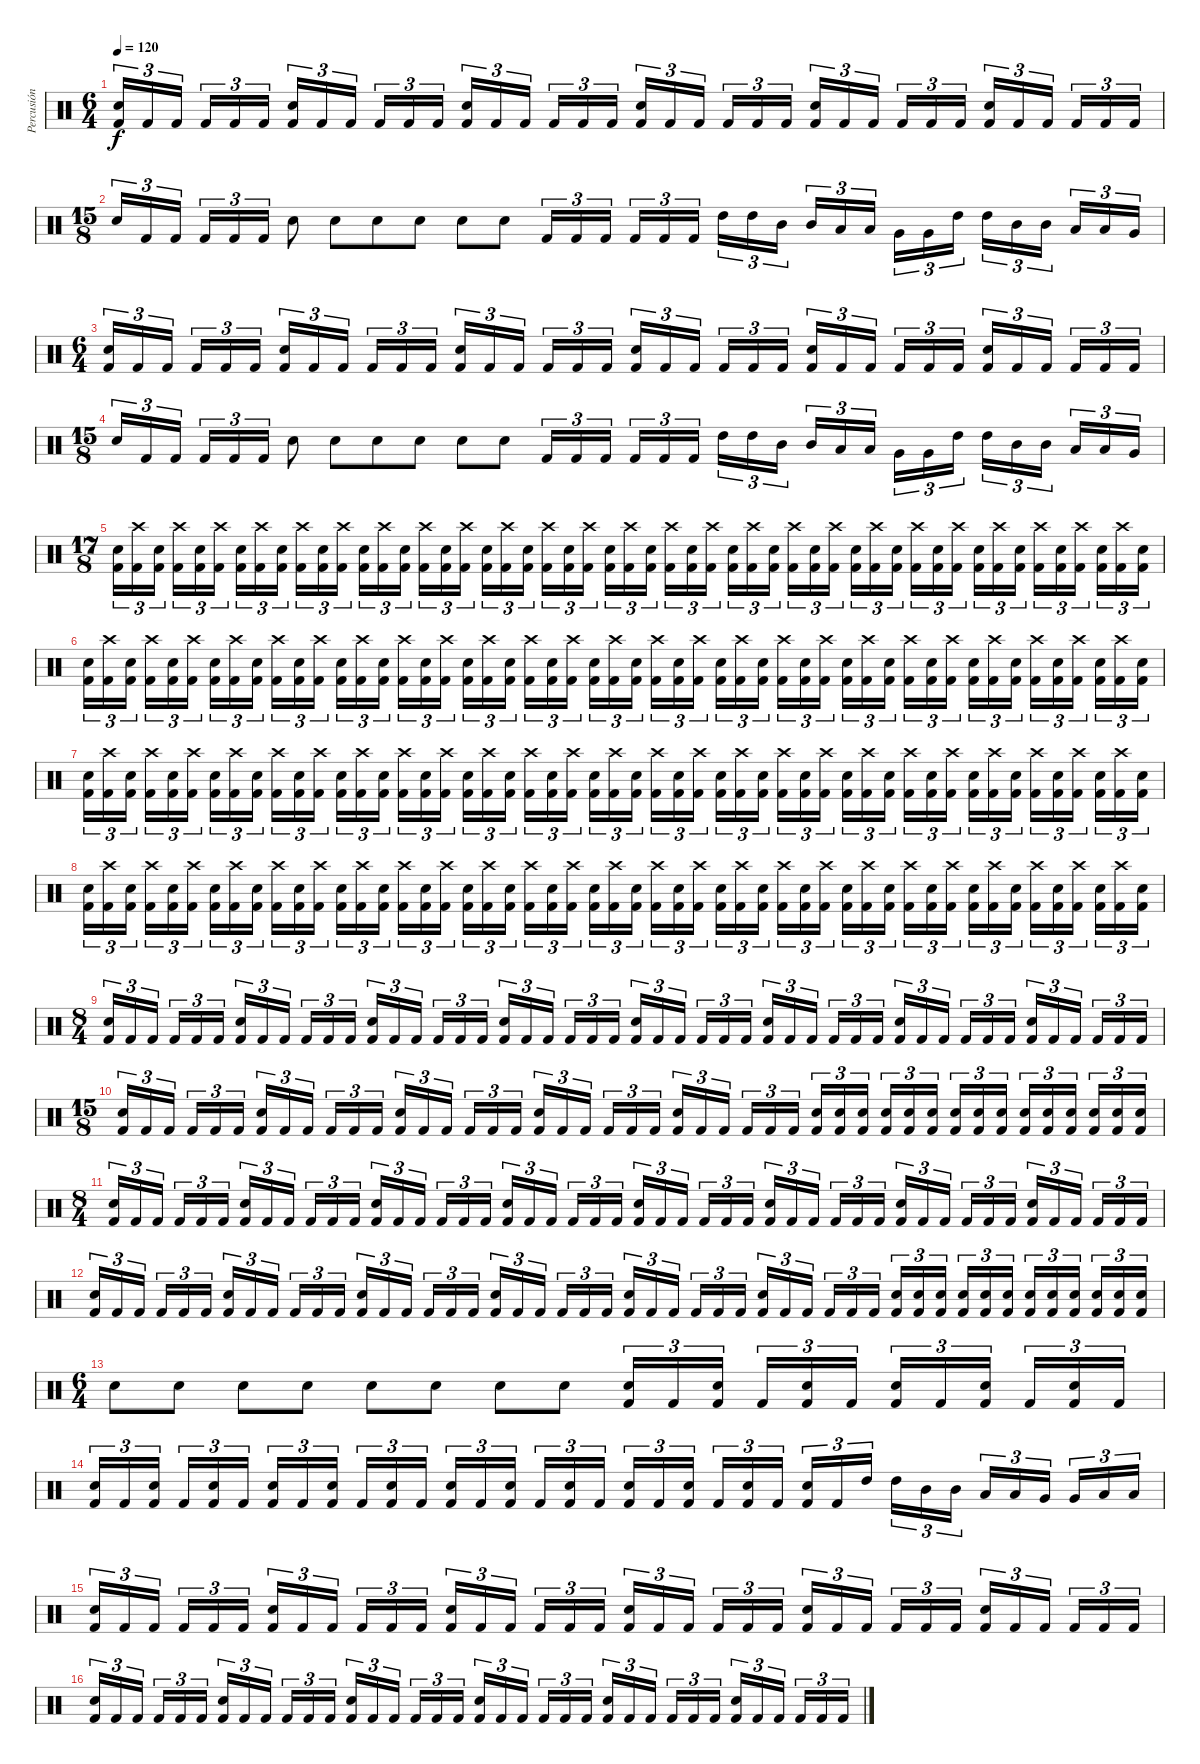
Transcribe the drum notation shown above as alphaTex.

\track ("Percusión" "Percusión") {instrument percussion}
\staff {score}
\articulation defaults
\ts (6 4)
\tempo 120
\clef neutral
\ks c
("Electric Snare (hit)" "Kick (hit) 2").16{tu (3 2) dy f} "Kick (hit) 2".16{tu (3 2)} "Kick (hit) 2".16{tu (3 2)} "Kick (hit) 2".16{tu (3 2)} "Kick (hit) 2".16{tu (3 2)} "Kick (hit) 2".16{tu (3 2)} ("Electric Snare (hit)" "Kick (hit) 2").16{tu (3 2)} "Kick (hit) 2".16{tu (3 2)} "Kick (hit) 2".16{tu (3 2)} "Kick (hit) 2".16{tu (3 2)} "Kick (hit) 2".16{tu (3 2)} "Kick (hit) 2".16{tu (3 2)} ("Electric Snare (hit)" "Kick (hit) 2").16{tu (3 2)} "Kick (hit) 2".16{tu (3 2)} "Kick (hit) 2".16{tu (3 2)} "Kick (hit) 2".16{tu (3 2)} "Kick (hit) 2".16{tu (3 2)} "Kick (hit) 2".16{tu (3 2)} ("Electric Snare (hit)" "Kick (hit) 2").16{tu (3 2)} "Kick (hit) 2".16{tu (3 2)} "Kick (hit) 2".16{tu (3 2)} "Kick (hit) 2".16{tu (3 2)} "Kick (hit) 2".16{tu (3 2)} "Kick (hit) 2".16{tu (3 2)} ("Electric Snare (hit)" "Kick (hit) 2").16{tu (3 2)} "Kick (hit) 2".16{tu (3 2)} "Kick (hit) 2".16{tu (3 2)} "Kick (hit) 2".16{tu (3 2)} "Kick (hit) 2".16{tu (3 2)} "Kick (hit) 2".16{tu (3 2)} ("Electric Snare (hit)" "Kick (hit) 2").16{tu (3 2)} "Kick (hit) 2".16{tu (3 2)} "Kick (hit) 2".16{tu (3 2)} "Kick (hit) 2".16{tu (3 2)} "Kick (hit) 2".16{tu (3 2)} "Kick (hit) 2".16{tu (3 2)} |
\ts (15 8)
"Electric Snare (hit)".16{tu (3 2)} "Kick (hit) 2".16{tu (3 2)} "Kick (hit) 2".16{tu (3 2)} "Kick (hit) 2".16{tu (3 2)} "Kick (hit) 2".16{tu (3 2)} "Kick (hit) 2".16{tu (3 2)} "Electric Snare (hit)".8 "Electric Snare (hit)".8 "Electric Snare (hit)".8 "Electric Snare (hit)".8 "Electric Snare (hit)".8 "Electric Snare (hit)".8 "Kick (hit) 2".16{tu (3 2)} "Kick (hit) 2".16{tu (3 2)} "Kick (hit) 2".16{tu (3 2)} "Kick (hit) 2".16{tu (3 2)} "Kick (hit) 2".16{tu (3 2)} "Kick (hit) 2".16{tu (3 2)} "High Tom (hit)".16{tu (3 2)} "High Tom (hit)".16{tu (3 2)} "Mid Tom (hit)".16{tu (3 2)} "Mid Tom (hit)".16{tu (3 2)} "Low Tom (hit)".16{tu (3 2)} "Low Tom (hit)".16{tu (3 2)} "Very Low Tom (hit)".16{tu (3 2)} "Very Low Tom (hit)".16{tu (3 2)} "High Tom (hit)".16{tu (3 2)} "High Tom (hit)".16{tu (3 2)} "Mid Tom (hit)".16{tu (3 2)} "Mid Tom (hit)".16{tu (3 2)} "Low Tom (hit)".16{tu (3 2)} "Low Tom (hit)".16{tu (3 2)} "Very Low Tom (hit)".16{tu (3 2)} |
\ts (6 4)
("Electric Snare (hit)" "Kick (hit) 2").16{tu (3 2)} "Kick (hit) 2".16{tu (3 2)} "Kick (hit) 2".16{tu (3 2)} "Kick (hit) 2".16{tu (3 2)} "Kick (hit) 2".16{tu (3 2)} "Kick (hit) 2".16{tu (3 2)} ("Electric Snare (hit)" "Kick (hit) 2").16{tu (3 2)} "Kick (hit) 2".16{tu (3 2)} "Kick (hit) 2".16{tu (3 2)} "Kick (hit) 2".16{tu (3 2)} "Kick (hit) 2".16{tu (3 2)} "Kick (hit) 2".16{tu (3 2)} ("Electric Snare (hit)" "Kick (hit) 2").16{tu (3 2)} "Kick (hit) 2".16{tu (3 2)} "Kick (hit) 2".16{tu (3 2)} "Kick (hit) 2".16{tu (3 2)} "Kick (hit) 2".16{tu (3 2)} "Kick (hit) 2".16{tu (3 2)} ("Electric Snare (hit)" "Kick (hit) 2").16{tu (3 2)} "Kick (hit) 2".16{tu (3 2)} "Kick (hit) 2".16{tu (3 2)} "Kick (hit) 2".16{tu (3 2)} "Kick (hit) 2".16{tu (3 2)} "Kick (hit) 2".16{tu (3 2)} ("Electric Snare (hit)" "Kick (hit) 2").16{tu (3 2)} "Kick (hit) 2".16{tu (3 2)} "Kick (hit) 2".16{tu (3 2)} "Kick (hit) 2".16{tu (3 2)} "Kick (hit) 2".16{tu (3 2)} "Kick (hit) 2".16{tu (3 2)} ("Electric Snare (hit)" "Kick (hit) 2").16{tu (3 2)} "Kick (hit) 2".16{tu (3 2)} "Kick (hit) 2".16{tu (3 2)} "Kick (hit) 2".16{tu (3 2)} "Kick (hit) 2".16{tu (3 2)} "Kick (hit) 2".16{tu (3 2)} |
\ts (15 8)
"Electric Snare (hit)".16{tu (3 2)} "Kick (hit) 2".16{tu (3 2)} "Kick (hit) 2".16{tu (3 2)} "Kick (hit) 2".16{tu (3 2)} "Kick (hit) 2".16{tu (3 2)} "Kick (hit) 2".16{tu (3 2)} "Electric Snare (hit)".8 "Electric Snare (hit)".8 "Electric Snare (hit)".8 "Electric Snare (hit)".8 "Electric Snare (hit)".8 "Electric Snare (hit)".8 "Kick (hit) 2".16{tu (3 2)} "Kick (hit) 2".16{tu (3 2)} "Kick (hit) 2".16{tu (3 2)} "Kick (hit) 2".16{tu (3 2)} "Kick (hit) 2".16{tu (3 2)} "Kick (hit) 2".16{tu (3 2)} "High Tom (hit)".16{tu (3 2)} "High Tom (hit)".16{tu (3 2)} "Mid Tom (hit)".16{tu (3 2)} "Mid Tom (hit)".16{tu (3 2)} "Low Tom (hit)".16{tu (3 2)} "Low Tom (hit)".16{tu (3 2)} "Very Low Tom (hit)".16{tu (3 2)} "Very Low Tom (hit)".16{tu (3 2)} "High Tom (hit)".16{tu (3 2)} "High Tom (hit)".16{tu (3 2)} "Mid Tom (hit)".16{tu (3 2)} "Mid Tom (hit)".16{tu (3 2)} "Low Tom (hit)".16{tu (3 2)} "Low Tom (hit)".16{tu (3 2)} "Very Low Tom (hit)".16{tu (3 2)} |
\ts (17 8)
("Electric Snare (hit)" "Kick (hit) 2").16{tu (3 2)} ("Crash high (hit)" "Kick (hit) 2").16{tu (3 2)} ("Electric Snare (hit)" "Kick (hit) 2").16{tu (3 2)} ("Crash high (hit)" "Kick (hit) 2").16{tu (3 2)} ("Electric Snare (hit)" "Kick (hit) 2").16{tu (3 2)} ("Crash high (hit)" "Kick (hit) 2").16{tu (3 2)} ("Electric Snare (hit)" "Kick (hit) 2").16{tu (3 2)} ("Crash high (hit)" "Kick (hit) 2").16{tu (3 2)} ("Electric Snare (hit)" "Kick (hit) 2").16{tu (3 2)} ("Crash high (hit)" "Kick (hit) 2").16{tu (3 2)} ("Electric Snare (hit)" "Kick (hit) 2").16{tu (3 2)} ("Crash high (hit)" "Kick (hit) 2").16{tu (3 2)} ("Electric Snare (hit)" "Kick (hit) 2").16{tu (3 2)} ("Crash high (hit)" "Kick (hit) 2").16{tu (3 2)} ("Electric Snare (hit)" "Kick (hit) 2").16{tu (3 2)} ("Crash high (hit)" "Kick (hit) 2").16{tu (3 2)} ("Electric Snare (hit)" "Kick (hit) 2").16{tu (3 2)} ("Crash high (hit)" "Kick (hit) 2").16{tu (3 2)} ("Electric Snare (hit)" "Kick (hit) 2").16{tu (3 2)} ("Crash high (hit)" "Kick (hit) 2").16{tu (3 2)} ("Electric Snare (hit)" "Kick (hit) 2").16{tu (3 2)} ("Crash high (hit)" "Kick (hit) 2").16{tu (3 2)} ("Electric Snare (hit)" "Kick (hit) 2").16{tu (3 2)} ("Crash high (hit)" "Kick (hit) 2").16{tu (3 2)} ("Electric Snare (hit)" "Kick (hit) 2").16{tu (3 2)} ("Crash high (hit)" "Kick (hit) 2").16{tu (3 2)} ("Electric Snare (hit)" "Kick (hit) 2").16{tu (3 2)} ("Crash high (hit)" "Kick (hit) 2").16{tu (3 2)} ("Electric Snare (hit)" "Kick (hit) 2").16{tu (3 2)} ("Crash high (hit)" "Kick (hit) 2").16{tu (3 2)} ("Electric Snare (hit)" "Kick (hit) 2").16{tu (3 2)} ("Crash high (hit)" "Kick (hit) 2").16{tu (3 2)} ("Electric Snare (hit)" "Kick (hit) 2").16{tu (3 2)} ("Crash high (hit)" "Kick (hit) 2").16{tu (3 2)} ("Electric Snare (hit)" "Kick (hit) 2").16{tu (3 2)} ("Crash high (hit)" "Kick (hit) 2").16{tu (3 2)} ("Electric Snare (hit)" "Kick (hit) 2").16{tu (3 2)} ("Crash high (hit)" "Kick (hit) 2").16{tu (3 2)} ("Electric Snare (hit)" "Kick (hit) 2").16{tu (3 2)} ("Crash high (hit)" "Kick (hit) 2").16{tu (3 2)} ("Electric Snare (hit)" "Kick (hit) 2").16{tu (3 2)} ("Crash high (hit)" "Kick (hit) 2").16{tu (3 2)} ("Electric Snare (hit)" "Kick (hit) 2").16{tu (3 2)} ("Crash high (hit)" "Kick (hit) 2").16{tu (3 2)} ("Electric Snare (hit)" "Kick (hit) 2").16{tu (3 2)} ("Crash high (hit)" "Kick (hit) 2").16{tu (3 2)} ("Electric Snare (hit)" "Kick (hit) 2").16{tu (3 2)} ("Crash high (hit)" "Kick (hit) 2").16{tu (3 2)} ("Electric Snare (hit)" "Kick (hit) 2").16{tu (3 2)} ("Crash high (hit)" "Kick (hit) 2").16{tu (3 2)} ("Electric Snare (hit)" "Kick (hit) 2").16{tu (3 2)} |
("Electric Snare (hit)" "Kick (hit) 2").16{tu (3 2)} ("Crash high (hit)" "Kick (hit) 2").16{tu (3 2)} ("Electric Snare (hit)" "Kick (hit) 2").16{tu (3 2)} ("Crash high (hit)" "Kick (hit) 2").16{tu (3 2)} ("Electric Snare (hit)" "Kick (hit) 2").16{tu (3 2)} ("Crash high (hit)" "Kick (hit) 2").16{tu (3 2)} ("Electric Snare (hit)" "Kick (hit) 2").16{tu (3 2)} ("Crash high (hit)" "Kick (hit) 2").16{tu (3 2)} ("Electric Snare (hit)" "Kick (hit) 2").16{tu (3 2)} ("Crash high (hit)" "Kick (hit) 2").16{tu (3 2)} ("Electric Snare (hit)" "Kick (hit) 2").16{tu (3 2)} ("Crash high (hit)" "Kick (hit) 2").16{tu (3 2)} ("Electric Snare (hit)" "Kick (hit) 2").16{tu (3 2)} ("Crash high (hit)" "Kick (hit) 2").16{tu (3 2)} ("Electric Snare (hit)" "Kick (hit) 2").16{tu (3 2)} ("Crash high (hit)" "Kick (hit) 2").16{tu (3 2)} ("Electric Snare (hit)" "Kick (hit) 2").16{tu (3 2)} ("Crash high (hit)" "Kick (hit) 2").16{tu (3 2)} ("Electric Snare (hit)" "Kick (hit) 2").16{tu (3 2)} ("Crash high (hit)" "Kick (hit) 2").16{tu (3 2)} ("Electric Snare (hit)" "Kick (hit) 2").16{tu (3 2)} ("Crash high (hit)" "Kick (hit) 2").16{tu (3 2)} ("Electric Snare (hit)" "Kick (hit) 2").16{tu (3 2)} ("Crash high (hit)" "Kick (hit) 2").16{tu (3 2)} ("Electric Snare (hit)" "Kick (hit) 2").16{tu (3 2)} ("Crash high (hit)" "Kick (hit) 2").16{tu (3 2)} ("Electric Snare (hit)" "Kick (hit) 2").16{tu (3 2)} ("Crash high (hit)" "Kick (hit) 2").16{tu (3 2)} ("Electric Snare (hit)" "Kick (hit) 2").16{tu (3 2)} ("Crash high (hit)" "Kick (hit) 2").16{tu (3 2)} ("Electric Snare (hit)" "Kick (hit) 2").16{tu (3 2)} ("Crash high (hit)" "Kick (hit) 2").16{tu (3 2)} ("Electric Snare (hit)" "Kick (hit) 2").16{tu (3 2)} ("Crash high (hit)" "Kick (hit) 2").16{tu (3 2)} ("Electric Snare (hit)" "Kick (hit) 2").16{tu (3 2)} ("Crash high (hit)" "Kick (hit) 2").16{tu (3 2)} ("Electric Snare (hit)" "Kick (hit) 2").16{tu (3 2)} ("Crash high (hit)" "Kick (hit) 2").16{tu (3 2)} ("Electric Snare (hit)" "Kick (hit) 2").16{tu (3 2)} ("Crash high (hit)" "Kick (hit) 2").16{tu (3 2)} ("Electric Snare (hit)" "Kick (hit) 2").16{tu (3 2)} ("Crash high (hit)" "Kick (hit) 2").16{tu (3 2)} ("Electric Snare (hit)" "Kick (hit) 2").16{tu (3 2)} ("Crash high (hit)" "Kick (hit) 2").16{tu (3 2)} ("Electric Snare (hit)" "Kick (hit) 2").16{tu (3 2)} ("Crash high (hit)" "Kick (hit) 2").16{tu (3 2)} ("Electric Snare (hit)" "Kick (hit) 2").16{tu (3 2)} ("Crash high (hit)" "Kick (hit) 2").16{tu (3 2)} ("Electric Snare (hit)" "Kick (hit) 2").16{tu (3 2)} ("Crash high (hit)" "Kick (hit) 2").16{tu (3 2)} ("Electric Snare (hit)" "Kick (hit) 2").16{tu (3 2)} |
("Electric Snare (hit)" "Kick (hit) 2").16{tu (3 2)} ("Crash high (hit)" "Kick (hit) 2").16{tu (3 2)} ("Electric Snare (hit)" "Kick (hit) 2").16{tu (3 2)} ("Crash high (hit)" "Kick (hit) 2").16{tu (3 2)} ("Electric Snare (hit)" "Kick (hit) 2").16{tu (3 2)} ("Crash high (hit)" "Kick (hit) 2").16{tu (3 2)} ("Electric Snare (hit)" "Kick (hit) 2").16{tu (3 2)} ("Crash high (hit)" "Kick (hit) 2").16{tu (3 2)} ("Electric Snare (hit)" "Kick (hit) 2").16{tu (3 2)} ("Crash high (hit)" "Kick (hit) 2").16{tu (3 2)} ("Electric Snare (hit)" "Kick (hit) 2").16{tu (3 2)} ("Crash high (hit)" "Kick (hit) 2").16{tu (3 2)} ("Electric Snare (hit)" "Kick (hit) 2").16{tu (3 2)} ("Crash high (hit)" "Kick (hit) 2").16{tu (3 2)} ("Electric Snare (hit)" "Kick (hit) 2").16{tu (3 2)} ("Crash high (hit)" "Kick (hit) 2").16{tu (3 2)} ("Electric Snare (hit)" "Kick (hit) 2").16{tu (3 2)} ("Crash high (hit)" "Kick (hit) 2").16{tu (3 2)} ("Electric Snare (hit)" "Kick (hit) 2").16{tu (3 2)} ("Crash high (hit)" "Kick (hit) 2").16{tu (3 2)} ("Electric Snare (hit)" "Kick (hit) 2").16{tu (3 2)} ("Crash high (hit)" "Kick (hit) 2").16{tu (3 2)} ("Electric Snare (hit)" "Kick (hit) 2").16{tu (3 2)} ("Crash high (hit)" "Kick (hit) 2").16{tu (3 2)} ("Electric Snare (hit)" "Kick (hit) 2").16{tu (3 2)} ("Crash high (hit)" "Kick (hit) 2").16{tu (3 2)} ("Electric Snare (hit)" "Kick (hit) 2").16{tu (3 2)} ("Crash high (hit)" "Kick (hit) 2").16{tu (3 2)} ("Electric Snare (hit)" "Kick (hit) 2").16{tu (3 2)} ("Crash high (hit)" "Kick (hit) 2").16{tu (3 2)} ("Electric Snare (hit)" "Kick (hit) 2").16{tu (3 2)} ("Crash high (hit)" "Kick (hit) 2").16{tu (3 2)} ("Electric Snare (hit)" "Kick (hit) 2").16{tu (3 2)} ("Crash high (hit)" "Kick (hit) 2").16{tu (3 2)} ("Electric Snare (hit)" "Kick (hit) 2").16{tu (3 2)} ("Crash high (hit)" "Kick (hit) 2").16{tu (3 2)} ("Electric Snare (hit)" "Kick (hit) 2").16{tu (3 2)} ("Crash high (hit)" "Kick (hit) 2").16{tu (3 2)} ("Electric Snare (hit)" "Kick (hit) 2").16{tu (3 2)} ("Crash high (hit)" "Kick (hit) 2").16{tu (3 2)} ("Electric Snare (hit)" "Kick (hit) 2").16{tu (3 2)} ("Crash high (hit)" "Kick (hit) 2").16{tu (3 2)} ("Electric Snare (hit)" "Kick (hit) 2").16{tu (3 2)} ("Crash high (hit)" "Kick (hit) 2").16{tu (3 2)} ("Electric Snare (hit)" "Kick (hit) 2").16{tu (3 2)} ("Crash high (hit)" "Kick (hit) 2").16{tu (3 2)} ("Electric Snare (hit)" "Kick (hit) 2").16{tu (3 2)} ("Crash high (hit)" "Kick (hit) 2").16{tu (3 2)} ("Electric Snare (hit)" "Kick (hit) 2").16{tu (3 2)} ("Crash high (hit)" "Kick (hit) 2").16{tu (3 2)} ("Electric Snare (hit)" "Kick (hit) 2").16{tu (3 2)} |
("Electric Snare (hit)" "Kick (hit) 2").16{tu (3 2)} ("Crash high (hit)" "Kick (hit) 2").16{tu (3 2)} ("Electric Snare (hit)" "Kick (hit) 2").16{tu (3 2)} ("Crash high (hit)" "Kick (hit) 2").16{tu (3 2)} ("Electric Snare (hit)" "Kick (hit) 2").16{tu (3 2)} ("Crash high (hit)" "Kick (hit) 2").16{tu (3 2)} ("Electric Snare (hit)" "Kick (hit) 2").16{tu (3 2)} ("Crash high (hit)" "Kick (hit) 2").16{tu (3 2)} ("Electric Snare (hit)" "Kick (hit) 2").16{tu (3 2)} ("Crash high (hit)" "Kick (hit) 2").16{tu (3 2)} ("Electric Snare (hit)" "Kick (hit) 2").16{tu (3 2)} ("Crash high (hit)" "Kick (hit) 2").16{tu (3 2)} ("Electric Snare (hit)" "Kick (hit) 2").16{tu (3 2)} ("Crash high (hit)" "Kick (hit) 2").16{tu (3 2)} ("Electric Snare (hit)" "Kick (hit) 2").16{tu (3 2)} ("Crash high (hit)" "Kick (hit) 2").16{tu (3 2)} ("Electric Snare (hit)" "Kick (hit) 2").16{tu (3 2)} ("Crash high (hit)" "Kick (hit) 2").16{tu (3 2)} ("Electric Snare (hit)" "Kick (hit) 2").16{tu (3 2)} ("Crash high (hit)" "Kick (hit) 2").16{tu (3 2)} ("Electric Snare (hit)" "Kick (hit) 2").16{tu (3 2)} ("Crash high (hit)" "Kick (hit) 2").16{tu (3 2)} ("Electric Snare (hit)" "Kick (hit) 2").16{tu (3 2)} ("Crash high (hit)" "Kick (hit) 2").16{tu (3 2)} ("Electric Snare (hit)" "Kick (hit) 2").16{tu (3 2)} ("Crash high (hit)" "Kick (hit) 2").16{tu (3 2)} ("Electric Snare (hit)" "Kick (hit) 2").16{tu (3 2)} ("Crash high (hit)" "Kick (hit) 2").16{tu (3 2)} ("Electric Snare (hit)" "Kick (hit) 2").16{tu (3 2)} ("Crash high (hit)" "Kick (hit) 2").16{tu (3 2)} ("Electric Snare (hit)" "Kick (hit) 2").16{tu (3 2)} ("Crash high (hit)" "Kick (hit) 2").16{tu (3 2)} ("Electric Snare (hit)" "Kick (hit) 2").16{tu (3 2)} ("Crash high (hit)" "Kick (hit) 2").16{tu (3 2)} ("Electric Snare (hit)" "Kick (hit) 2").16{tu (3 2)} ("Crash high (hit)" "Kick (hit) 2").16{tu (3 2)} ("Electric Snare (hit)" "Kick (hit) 2").16{tu (3 2)} ("Crash high (hit)" "Kick (hit) 2").16{tu (3 2)} ("Electric Snare (hit)" "Kick (hit) 2").16{tu (3 2)} ("Crash high (hit)" "Kick (hit) 2").16{tu (3 2)} ("Electric Snare (hit)" "Kick (hit) 2").16{tu (3 2)} ("Crash high (hit)" "Kick (hit) 2").16{tu (3 2)} ("Electric Snare (hit)" "Kick (hit) 2").16{tu (3 2)} ("Crash high (hit)" "Kick (hit) 2").16{tu (3 2)} ("Electric Snare (hit)" "Kick (hit) 2").16{tu (3 2)} ("Crash high (hit)" "Kick (hit) 2").16{tu (3 2)} ("Electric Snare (hit)" "Kick (hit) 2").16{tu (3 2)} ("Crash high (hit)" "Kick (hit) 2").16{tu (3 2)} ("Electric Snare (hit)" "Kick (hit) 2").16{tu (3 2)} ("Crash high (hit)" "Kick (hit) 2").16{tu (3 2)} ("Electric Snare (hit)" "Kick (hit) 2").16{tu (3 2)} |
\ts (8 4)
("Electric Snare (hit)" "Kick (hit) 2").16{tu (3 2)} "Kick (hit) 2".16{tu (3 2)} "Kick (hit) 2".16{tu (3 2)} "Kick (hit) 2".16{tu (3 2)} "Kick (hit) 2".16{tu (3 2)} "Kick (hit) 2".16{tu (3 2)} ("Electric Snare (hit)" "Kick (hit) 2").16{tu (3 2)} "Kick (hit) 2".16{tu (3 2)} "Kick (hit) 2".16{tu (3 2)} "Kick (hit) 2".16{tu (3 2)} "Kick (hit) 2".16{tu (3 2)} "Kick (hit) 2".16{tu (3 2)} ("Electric Snare (hit)" "Kick (hit) 2").16{tu (3 2)} "Kick (hit) 2".16{tu (3 2)} "Kick (hit) 2".16{tu (3 2)} "Kick (hit) 2".16{tu (3 2)} "Kick (hit) 2".16{tu (3 2)} "Kick (hit) 2".16{tu (3 2)} ("Electric Snare (hit)" "Kick (hit) 2").16{tu (3 2)} "Kick (hit) 2".16{tu (3 2)} "Kick (hit) 2".16{tu (3 2)} "Kick (hit) 2".16{tu (3 2)} "Kick (hit) 2".16{tu (3 2)} "Kick (hit) 2".16{tu (3 2)} ("Electric Snare (hit)" "Kick (hit) 2").16{tu (3 2)} "Kick (hit) 2".16{tu (3 2)} "Kick (hit) 2".16{tu (3 2)} "Kick (hit) 2".16{tu (3 2)} "Kick (hit) 2".16{tu (3 2)} "Kick (hit) 2".16{tu (3 2)} ("Electric Snare (hit)" "Kick (hit) 2").16{tu (3 2)} "Kick (hit) 2".16{tu (3 2)} "Kick (hit) 2".16{tu (3 2)} "Kick (hit) 2".16{tu (3 2)} "Kick (hit) 2".16{tu (3 2)} "Kick (hit) 2".16{tu (3 2)} ("Electric Snare (hit)" "Kick (hit) 2").16{tu (3 2)} "Kick (hit) 2".16{tu (3 2)} "Kick (hit) 2".16{tu (3 2)} "Kick (hit) 2".16{tu (3 2)} "Kick (hit) 2".16{tu (3 2)} "Kick (hit) 2".16{tu (3 2)} ("Electric Snare (hit)" "Kick (hit) 2").16{tu (3 2)} "Kick (hit) 2".16{tu (3 2)} "Kick (hit) 2".16{tu (3 2)} "Kick (hit) 2".16{tu (3 2)} "Kick (hit) 2".16{tu (3 2)} "Kick (hit) 2".16{tu (3 2)} |
\ts (15 8)
("Electric Snare (hit)" "Kick (hit) 2").16{tu (3 2)} "Kick (hit) 2".16{tu (3 2)} "Kick (hit) 2".16{tu (3 2)} "Kick (hit) 2".16{tu (3 2)} "Kick (hit) 2".16{tu (3 2)} "Kick (hit) 2".16{tu (3 2)} ("Electric Snare (hit)" "Kick (hit) 2").16{tu (3 2)} "Kick (hit) 2".16{tu (3 2)} "Kick (hit) 2".16{tu (3 2)} "Kick (hit) 2".16{tu (3 2)} "Kick (hit) 2".16{tu (3 2)} "Kick (hit) 2".16{tu (3 2)} ("Electric Snare (hit)" "Kick (hit) 2").16{tu (3 2)} "Kick (hit) 2".16{tu (3 2)} "Kick (hit) 2".16{tu (3 2)} "Kick (hit) 2".16{tu (3 2)} "Kick (hit) 2".16{tu (3 2)} "Kick (hit) 2".16{tu (3 2)} ("Electric Snare (hit)" "Kick (hit) 2").16{tu (3 2)} "Kick (hit) 2".16{tu (3 2)} "Kick (hit) 2".16{tu (3 2)} "Kick (hit) 2".16{tu (3 2)} "Kick (hit) 2".16{tu (3 2)} "Kick (hit) 2".16{tu (3 2)} ("Electric Snare (hit)" "Kick (hit) 2").16{tu (3 2)} "Kick (hit) 2".16{tu (3 2)} "Kick (hit) 2".16{tu (3 2)} "Kick (hit) 2".16{tu (3 2)} "Kick (hit) 2".16{tu (3 2)} "Kick (hit) 2".16{tu (3 2)} ("Electric Snare (hit)" "Kick (hit) 2").16{tu (3 2)} ("Electric Snare (hit)" "Kick (hit) 2").16{tu (3 2)} ("Electric Snare (hit)" "Kick (hit) 2").16{tu (3 2)} ("Electric Snare (hit)" "Kick (hit) 2").16{tu (3 2)} ("Electric Snare (hit)" "Kick (hit) 2").16{tu (3 2)} ("Electric Snare (hit)" "Kick (hit) 2").16{tu (3 2)} ("Electric Snare (hit)" "Kick (hit) 2").16{tu (3 2)} ("Electric Snare (hit)" "Kick (hit) 2").16{tu (3 2)} ("Electric Snare (hit)" "Kick (hit) 2").16{tu (3 2)} ("Electric Snare (hit)" "Kick (hit) 2").16{tu (3 2)} ("Electric Snare (hit)" "Kick (hit) 2").16{tu (3 2)} ("Electric Snare (hit)" "Kick (hit) 2").16{tu (3 2)} ("Electric Snare (hit)" "Kick (hit) 2").16{tu (3 2)} ("Electric Snare (hit)" "Kick (hit) 2").16{tu (3 2)} ("Electric Snare (hit)" "Kick (hit) 2").16{tu (3 2)} |
\ts (8 4)
("Electric Snare (hit)" "Kick (hit) 2").16{tu (3 2)} "Kick (hit) 2".16{tu (3 2)} "Kick (hit) 2".16{tu (3 2)} "Kick (hit) 2".16{tu (3 2)} "Kick (hit) 2".16{tu (3 2)} "Kick (hit) 2".16{tu (3 2)} ("Electric Snare (hit)" "Kick (hit) 2").16{tu (3 2)} "Kick (hit) 2".16{tu (3 2)} "Kick (hit) 2".16{tu (3 2)} "Kick (hit) 2".16{tu (3 2)} "Kick (hit) 2".16{tu (3 2)} "Kick (hit) 2".16{tu (3 2)} ("Electric Snare (hit)" "Kick (hit) 2").16{tu (3 2)} "Kick (hit) 2".16{tu (3 2)} "Kick (hit) 2".16{tu (3 2)} "Kick (hit) 2".16{tu (3 2)} "Kick (hit) 2".16{tu (3 2)} "Kick (hit) 2".16{tu (3 2)} ("Electric Snare (hit)" "Kick (hit) 2").16{tu (3 2)} "Kick (hit) 2".16{tu (3 2)} "Kick (hit) 2".16{tu (3 2)} "Kick (hit) 2".16{tu (3 2)} "Kick (hit) 2".16{tu (3 2)} "Kick (hit) 2".16{tu (3 2)} ("Electric Snare (hit)" "Kick (hit) 2").16{tu (3 2)} "Kick (hit) 2".16{tu (3 2)} "Kick (hit) 2".16{tu (3 2)} "Kick (hit) 2".16{tu (3 2)} "Kick (hit) 2".16{tu (3 2)} "Kick (hit) 2".16{tu (3 2)} ("Electric Snare (hit)" "Kick (hit) 2").16{tu (3 2)} "Kick (hit) 2".16{tu (3 2)} "Kick (hit) 2".16{tu (3 2)} "Kick (hit) 2".16{tu (3 2)} "Kick (hit) 2".16{tu (3 2)} "Kick (hit) 2".16{tu (3 2)} ("Electric Snare (hit)" "Kick (hit) 2").16{tu (3 2)} "Kick (hit) 2".16{tu (3 2)} "Kick (hit) 2".16{tu (3 2)} "Kick (hit) 2".16{tu (3 2)} "Kick (hit) 2".16{tu (3 2)} "Kick (hit) 2".16{tu (3 2)} ("Electric Snare (hit)" "Kick (hit) 2").16{tu (3 2)} "Kick (hit) 2".16{tu (3 2)} "Kick (hit) 2".16{tu (3 2)} "Kick (hit) 2".16{tu (3 2)} "Kick (hit) 2".16{tu (3 2)} "Kick (hit) 2".16{tu (3 2)} |
("Electric Snare (hit)" "Kick (hit) 2").16{tu (3 2)} "Kick (hit) 2".16{tu (3 2)} "Kick (hit) 2".16{tu (3 2)} "Kick (hit) 2".16{tu (3 2)} "Kick (hit) 2".16{tu (3 2)} "Kick (hit) 2".16{tu (3 2)} ("Electric Snare (hit)" "Kick (hit) 2").16{tu (3 2)} "Kick (hit) 2".16{tu (3 2)} "Kick (hit) 2".16{tu (3 2)} "Kick (hit) 2".16{tu (3 2)} "Kick (hit) 2".16{tu (3 2)} "Kick (hit) 2".16{tu (3 2)} ("Electric Snare (hit)" "Kick (hit) 2").16{tu (3 2)} "Kick (hit) 2".16{tu (3 2)} "Kick (hit) 2".16{tu (3 2)} "Kick (hit) 2".16{tu (3 2)} "Kick (hit) 2".16{tu (3 2)} "Kick (hit) 2".16{tu (3 2)} ("Electric Snare (hit)" "Kick (hit) 2").16{tu (3 2)} "Kick (hit) 2".16{tu (3 2)} "Kick (hit) 2".16{tu (3 2)} "Kick (hit) 2".16{tu (3 2)} "Kick (hit) 2".16{tu (3 2)} "Kick (hit) 2".16{tu (3 2)} ("Electric Snare (hit)" "Kick (hit) 2").16{tu (3 2)} "Kick (hit) 2".16{tu (3 2)} "Kick (hit) 2".16{tu (3 2)} "Kick (hit) 2".16{tu (3 2)} "Kick (hit) 2".16{tu (3 2)} "Kick (hit) 2".16{tu (3 2)} ("Electric Snare (hit)" "Kick (hit) 2").16{tu (3 2)} "Kick (hit) 2".16{tu (3 2)} "Kick (hit) 2".16{tu (3 2)} "Kick (hit) 2".16{tu (3 2)} "Kick (hit) 2".16{tu (3 2)} "Kick (hit) 2".16{tu (3 2)} ("Electric Snare (hit)" "Kick (hit) 2").16{tu (3 2)} ("Electric Snare (hit)" "Kick (hit) 2").16{tu (3 2)} ("Electric Snare (hit)" "Kick (hit) 2").16{tu (3 2)} ("Electric Snare (hit)" "Kick (hit) 2").16{tu (3 2)} ("Electric Snare (hit)" "Kick (hit) 2").16{tu (3 2)} ("Electric Snare (hit)" "Kick (hit) 2").16{tu (3 2)} ("Electric Snare (hit)" "Kick (hit) 2").16{tu (3 2)} ("Electric Snare (hit)" "Kick (hit) 2").16{tu (3 2)} ("Electric Snare (hit)" "Kick (hit) 2").16{tu (3 2)} ("Electric Snare (hit)" "Kick (hit) 2").16{tu (3 2)} ("Electric Snare (hit)" "Kick (hit) 2").16{tu (3 2)} ("Electric Snare (hit)" "Kick (hit) 2").16{tu (3 2)} |
\ts (6 4)
"Electric Snare (hit)".8 "Electric Snare (hit)".8 "Electric Snare (hit)".8 "Electric Snare (hit)".8 "Electric Snare (hit)".8 "Electric Snare (hit)".8 "Electric Snare (hit)".8 "Electric Snare (hit)".8 ("Electric Snare (hit)" "Kick (hit) 2").16{tu (3 2)} "Kick (hit) 2".16{tu (3 2)} ("Electric Snare (hit)" "Kick (hit) 2").16{tu (3 2)} "Kick (hit) 2".16{tu (3 2)} ("Electric Snare (hit)" "Kick (hit) 2").16{tu (3 2)} "Kick (hit) 2".16{tu (3 2)} ("Electric Snare (hit)" "Kick (hit) 2").16{tu (3 2)} "Kick (hit) 2".16{tu (3 2)} ("Electric Snare (hit)" "Kick (hit) 2").16{tu (3 2)} "Kick (hit) 2".16{tu (3 2)} ("Electric Snare (hit)" "Kick (hit) 2").16{tu (3 2)} "Kick (hit) 2".16{tu (3 2)} |
("Electric Snare (hit)" "Kick (hit) 2").16{tu (3 2)} "Kick (hit) 2".16{tu (3 2)} ("Electric Snare (hit)" "Kick (hit) 2").16{tu (3 2)} "Kick (hit) 2".16{tu (3 2)} ("Electric Snare (hit)" "Kick (hit) 2").16{tu (3 2)} "Kick (hit) 2".16{tu (3 2)} ("Electric Snare (hit)" "Kick (hit) 2").16{tu (3 2)} "Kick (hit) 2".16{tu (3 2)} ("Electric Snare (hit)" "Kick (hit) 2").16{tu (3 2)} "Kick (hit) 2".16{tu (3 2)} ("Electric Snare (hit)" "Kick (hit) 2").16{tu (3 2)} "Kick (hit) 2".16{tu (3 2)} ("Electric Snare (hit)" "Kick (hit) 2").16{tu (3 2)} "Kick (hit) 2".16{tu (3 2)} ("Electric Snare (hit)" "Kick (hit) 2").16{tu (3 2)} "Kick (hit) 2".16{tu (3 2)} ("Electric Snare (hit)" "Kick (hit) 2").16{tu (3 2)} "Kick (hit) 2".16{tu (3 2)} ("Electric Snare (hit)" "Kick (hit) 2").16{tu (3 2)} "Kick (hit) 2".16{tu (3 2)} ("Electric Snare (hit)" "Kick (hit) 2").16{tu (3 2)} "Kick (hit) 2".16{tu (3 2)} ("Electric Snare (hit)" "Kick (hit) 2").16{tu (3 2)} "Kick (hit) 2".16{tu (3 2)} ("Electric Snare (hit)" "Kick (hit) 2").16{tu (3 2)} "Kick (hit) 2".16{tu (3 2)} "High Tom (hit)".16{tu (3 2)} "High Tom (hit)".16{tu (3 2)} "Mid Tom (hit)".16{tu (3 2)} "Mid Tom (hit)".16{tu (3 2)} "Low Tom (hit)".16{tu (3 2)} "Low Tom (hit)".16{tu (3 2)} "Very Low Tom (hit)".16{tu (3 2)} "Very Low Tom (hit)".16{tu (3 2)} "Low Floor Tom (hit)".16{tu (3 2)} "Low Floor Tom (hit)".16{tu (3 2)} |
("Electric Snare (hit)" "Kick (hit) 2").16{tu (3 2)} "Kick (hit) 2".16{tu (3 2)} "Kick (hit) 2".16{tu (3 2)} "Kick (hit) 2".16{tu (3 2)} "Kick (hit) 2".16{tu (3 2)} "Kick (hit) 2".16{tu (3 2)} ("Electric Snare (hit)" "Kick (hit) 2").16{tu (3 2)} "Kick (hit) 2".16{tu (3 2)} "Kick (hit) 2".16{tu (3 2)} "Kick (hit) 2".16{tu (3 2)} "Kick (hit) 2".16{tu (3 2)} "Kick (hit) 2".16{tu (3 2)} ("Electric Snare (hit)" "Kick (hit) 2").16{tu (3 2)} "Kick (hit) 2".16{tu (3 2)} "Kick (hit) 2".16{tu (3 2)} "Kick (hit) 2".16{tu (3 2)} "Kick (hit) 2".16{tu (3 2)} "Kick (hit) 2".16{tu (3 2)} ("Electric Snare (hit)" "Kick (hit) 2").16{tu (3 2)} "Kick (hit) 2".16{tu (3 2)} "Kick (hit) 2".16{tu (3 2)} "Kick (hit) 2".16{tu (3 2)} "Kick (hit) 2".16{tu (3 2)} "Kick (hit) 2".16{tu (3 2)} ("Electric Snare (hit)" "Kick (hit) 2").16{tu (3 2)} "Kick (hit) 2".16{tu (3 2)} "Kick (hit) 2".16{tu (3 2)} "Kick (hit) 2".16{tu (3 2)} "Kick (hit) 2".16{tu (3 2)} "Kick (hit) 2".16{tu (3 2)} ("Electric Snare (hit)" "Kick (hit) 2").16{tu (3 2)} "Kick (hit) 2".16{tu (3 2)} "Kick (hit) 2".16{tu (3 2)} "Kick (hit) 2".16{tu (3 2)} "Kick (hit) 2".16{tu (3 2)} "Kick (hit) 2".16{tu (3 2)} |
("Electric Snare (hit)" "Kick (hit) 2").16{tu (3 2)} "Kick (hit) 2".16{tu (3 2)} "Kick (hit) 2".16{tu (3 2)} "Kick (hit) 2".16{tu (3 2)} "Kick (hit) 2".16{tu (3 2)} "Kick (hit) 2".16{tu (3 2)} ("Electric Snare (hit)" "Kick (hit) 2").16{tu (3 2)} "Kick (hit) 2".16{tu (3 2)} "Kick (hit) 2".16{tu (3 2)} "Kick (hit) 2".16{tu (3 2)} "Kick (hit) 2".16{tu (3 2)} "Kick (hit) 2".16{tu (3 2)} ("Electric Snare (hit)" "Kick (hit) 2").16{tu (3 2)} "Kick (hit) 2".16{tu (3 2)} "Kick (hit) 2".16{tu (3 2)} "Kick (hit) 2".16{tu (3 2)} "Kick (hit) 2".16{tu (3 2)} "Kick (hit) 2".16{tu (3 2)} ("Electric Snare (hit)" "Kick (hit) 2").16{tu (3 2)} "Kick (hit) 2".16{tu (3 2)} "Kick (hit) 2".16{tu (3 2)} "Kick (hit) 2".16{tu (3 2)} "Kick (hit) 2".16{tu (3 2)} "Kick (hit) 2".16{tu (3 2)} ("Electric Snare (hit)" "Kick (hit) 2").16{tu (3 2)} "Kick (hit) 2".16{tu (3 2)} "Kick (hit) 2".16{tu (3 2)} "Kick (hit) 2".16{tu (3 2)} "Kick (hit) 2".16{tu (3 2)} "Kick (hit) 2".16{tu (3 2)} ("Electric Snare (hit)" "Kick (hit) 2").16{tu (3 2)} "Kick (hit) 2".16{tu (3 2)} "Kick (hit) 2".16{tu (3 2)} "Kick (hit) 2".16{tu (3 2)} "Kick (hit) 2".16{tu (3 2)} "Kick (hit) 2".16{tu (3 2)}
